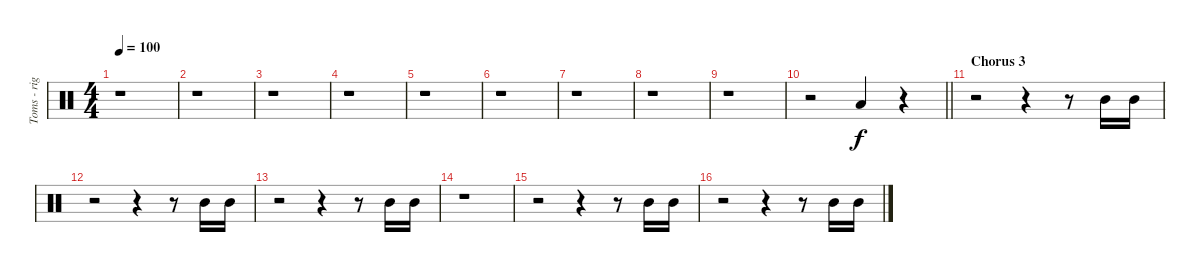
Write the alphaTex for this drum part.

\track ("Toms - right" "Toms - rig") {instrument percussion}
\staff {score}
\articulation defaults
\ts (4 4)
\tempo 100
\clef neutral
\ks c
r.1{dy f} |
r.1 |
r.1 |
r.1 |
r.1 |
r.1 |
r.1 |
r.1 |
r.1 |
\barLineRight lightlight
r.2 "Low Tom (hit)".4 r.4 |
\section ("" "Chorus 3")
r.2 r.4 r.8 "Mid Tom (hit)".16 "Mid Tom (hit)".16 |
r.2 r.4 r.8 "Mid Tom (hit)".16 "Mid Tom (hit)".16 |
r.2 r.4 r.8 "Mid Tom (hit)".16 "Mid Tom (hit)".16 |
r.1 |
r.2 r.4 r.8 "Mid Tom (hit)".16 "Mid Tom (hit)".16 |
r.2 r.4 r.8 "Mid Tom (hit)".16 "Mid Tom (hit)".16
